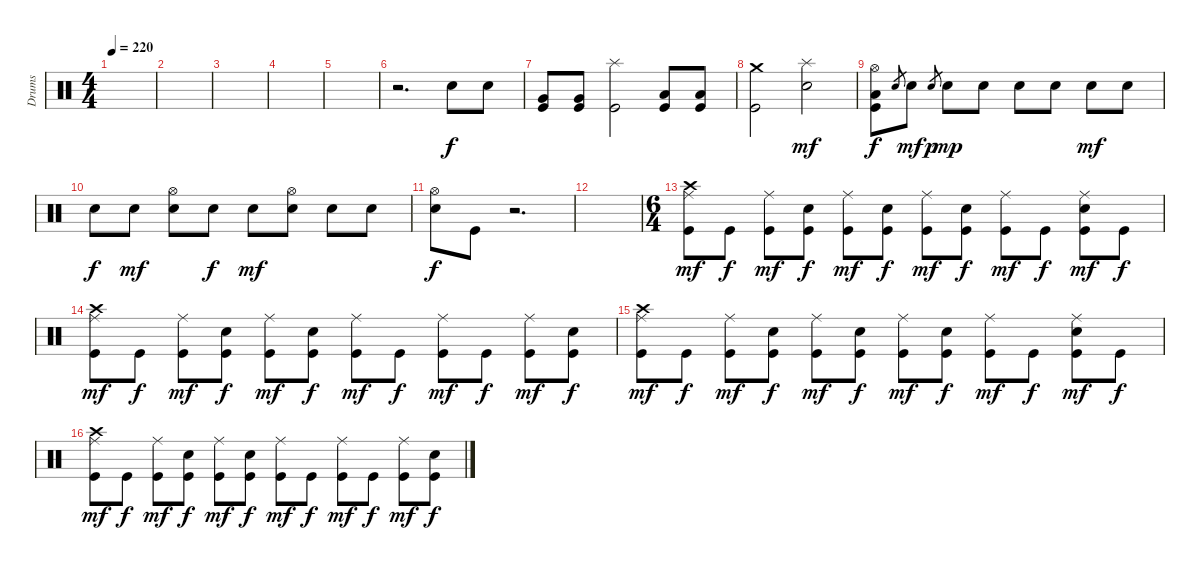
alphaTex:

\track ("Drums" "Drums") {instrument percussion}
\staff {score}
\articulation defaults
\ts (4 4)
\tempo 220
\clef neutral
\ks c
|
|
|
|
|
r.2{d} "Electric Snare (hit)".8{dy f} "Electric Snare (hit)".8 |
("Very Low Tom (hit)" "Kick (hit)").8 ("Very Low Tom (hit)" "Kick (hit)").8 ("Splash (hit)" "Kick (hit)").2 ("Low Floor Tom (hit)" "Kick (hit)").8 ("Low Floor Tom (hit)" "Kick (hit)").8 |
("Crash medium (hit)" "Kick (hit)").2 ("Splash (hit)" "Electric Snare (hit)").2{dy mf} |
("Hi-Hat (open)" "Low Floor Tom (hit)" "Kick (hit)").8{dy f} "Electric Snare (hit)".8{gr} "Electric Snare (hit)".8{dy mf} "Electric Snare (hit)".8{gr dy p} "Electric Snare (hit)".8{dy mp} "Electric Snare (hit)".8 "Electric Snare (hit)".8 "Electric Snare (hit)".8 "Electric Snare (hit)".8{dy mf} "Electric Snare (hit)".8 |
"Electric Snare (hit)".8{dy f} "Electric Snare (hit)".8{dy mf} ("Electric Snare (hit)" "Hi-Hat (open)").8 "Electric Snare (hit)".8{dy f} "Electric Snare (hit)".8{dy mf} ("Electric Snare (hit)" "Hi-Hat (open)").8 "Electric Snare (hit)".8 "Electric Snare (hit)".8 |
("Hi-Hat (open)" "Electric Snare (hit)").8{dy f} "Kick (hit)".8 r.2{d} |
|
\ts (6 4)
("Ride (middle)" "Crash high (hit)" "Kick (hit)").8{dy mf} "Kick (hit)".8{dy f} ("Ride (middle)" "Kick (hit)").8{dy mf} ("Electric Snare (hit)" "Kick (hit)").8{dy f} ("Ride (middle)" "Kick (hit)").8{dy mf} ("Electric Snare (hit)" "Kick (hit)").8{dy f} ("Ride (middle)" "Kick (hit)").8{dy mf} ("Electric Snare (hit)" "Kick (hit)").8{dy f} ("Ride (middle)" "Kick (hit)").8{dy mf} "Kick (hit)".8{dy f} ("Ride (middle)" "Electric Snare (hit)" "Kick (hit)").8{dy mf} "Kick (hit)".8{dy f} |
("Ride (middle)" "Crash high (hit)" "Kick (hit)").8{dy mf} "Kick (hit)".8{dy f} ("Ride (middle)" "Kick (hit)").8{dy mf} ("Electric Snare (hit)" "Kick (hit)").8{dy f} ("Ride (middle)" "Kick (hit)").8{dy mf} ("Electric Snare (hit)" "Kick (hit)").8{dy f} ("Ride (middle)" "Kick (hit)").8{dy mf} "Kick (hit)".8{dy f} ("Ride (middle)" "Kick (hit)").8{dy mf} "Kick (hit)".8{dy f} ("Ride (middle)" "Kick (hit)").8{dy mf} ("Electric Snare (hit)" "Kick (hit)").8{dy f} |
("Ride (middle)" "Crash high (hit)" "Kick (hit)").8{dy mf} "Kick (hit)".8{dy f} ("Ride (middle)" "Kick (hit)").8{dy mf} ("Electric Snare (hit)" "Kick (hit)").8{dy f} ("Ride (middle)" "Kick (hit)").8{dy mf} ("Electric Snare (hit)" "Kick (hit)").8{dy f} ("Ride (middle)" "Kick (hit)").8{dy mf} ("Electric Snare (hit)" "Kick (hit)").8{dy f} ("Ride (middle)" "Kick (hit)").8{dy mf} "Kick (hit)".8{dy f} ("Ride (middle)" "Electric Snare (hit)" "Kick (hit)").8{dy mf} "Kick (hit)".8{dy f} |
("Ride (middle)" "Crash high (hit)" "Kick (hit)").8{dy mf} "Kick (hit)".8{dy f} ("Ride (middle)" "Kick (hit)").8{dy mf} ("Electric Snare (hit)" "Kick (hit)").8{dy f} ("Ride (middle)" "Kick (hit)").8{dy mf} ("Electric Snare (hit)" "Kick (hit)").8{dy f} ("Ride (middle)" "Kick (hit)").8{dy mf} "Kick (hit)".8{dy f} ("Ride (middle)" "Kick (hit)").8{dy mf} "Kick (hit)".8{dy f} ("Ride (middle)" "Kick (hit)").8{dy mf} ("Electric Snare (hit)" "Kick (hit)").8{dy f}
